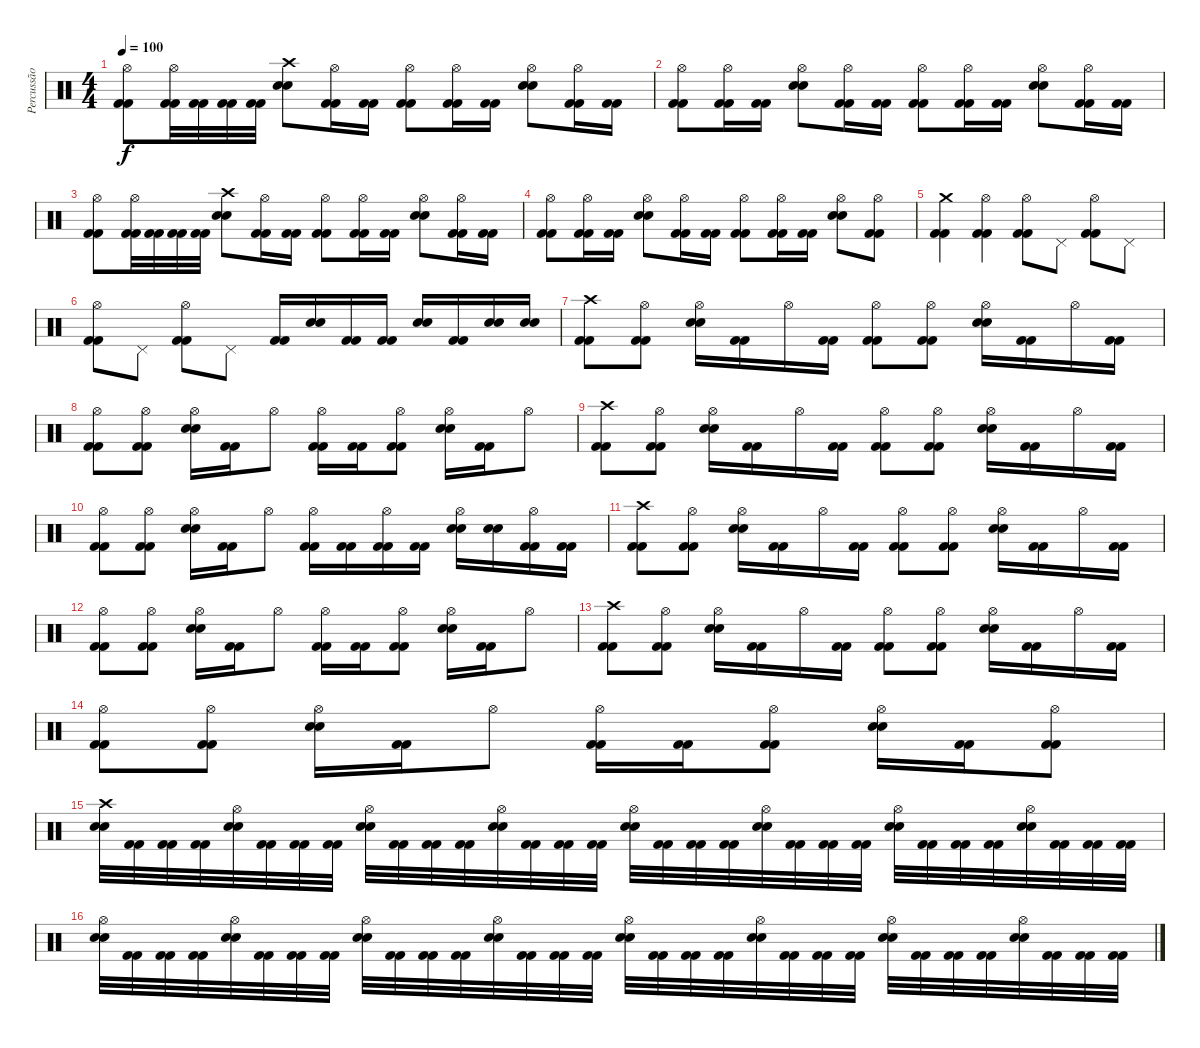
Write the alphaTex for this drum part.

\track ("Percussão" "Percussão") {instrument percussion}
\staff {score}
\articulation defaults
\ts (4 4)
\tempo 100
\clef neutral
\ks c
("Hi-Hat (open)" "Kick (hit) 2" "Kick (hit) 2").8{dy f} ("Hi-Hat (open)" "Kick (hit) 2" "Kick (hit) 2").32 ("Kick (hit) 2" "Kick (hit) 2").32 ("Kick (hit) 2" "Kick (hit) 2").32 ("Kick (hit) 2" "Kick (hit) 2").32 ("Crash high (hit)" "Electric Snare (hit)" "Electric Snare (hit)").8 ("Hi-Hat (open)" "Kick (hit) 2" "Kick (hit) 2").16 ("Kick (hit) 2" "Kick (hit) 2").16 ("Hi-Hat (open)" "Kick (hit) 2" "Kick (hit) 2").8 ("Hi-Hat (open)" "Kick (hit) 2" "Kick (hit) 2").16 ("Kick (hit) 2" "Kick (hit) 2").16 ("Hi-Hat (open)" "Electric Snare (hit)" "Electric Snare (hit)").8 ("Hi-Hat (open)" "Kick (hit) 2" "Kick (hit) 2").16 ("Kick (hit) 2" "Kick (hit) 2").16 |
("Hi-Hat (open)" "Kick (hit) 2" "Kick (hit) 2").8 ("Hi-Hat (open)" "Kick (hit) 2" "Kick (hit) 2").16 ("Kick (hit) 2" "Kick (hit) 2").16 ("Hi-Hat (open)" "Electric Snare (hit)" "Electric Snare (hit)").8 ("Hi-Hat (open)" "Kick (hit) 2" "Kick (hit) 2").16 ("Kick (hit) 2" "Kick (hit) 2").16 ("Hi-Hat (open)" "Kick (hit) 2" "Kick (hit) 2").8 ("Hi-Hat (open)" "Kick (hit) 2" "Kick (hit) 2").16 ("Kick (hit) 2" "Kick (hit) 2").16 ("Hi-Hat (open)" "Electric Snare (hit)" "Electric Snare (hit)").8 ("Hi-Hat (open)" "Kick (hit) 2" "Kick (hit) 2").16 ("Kick (hit) 2" "Kick (hit) 2").16 |
("Hi-Hat (open)" "Kick (hit) 2" "Kick (hit) 2").8 ("Hi-Hat (open)" "Kick (hit) 2" "Kick (hit) 2").32 ("Kick (hit) 2" "Kick (hit) 2").32 ("Kick (hit) 2" "Kick (hit) 2").32 ("Kick (hit) 2" "Kick (hit) 2").32 ("Crash high (hit)" "Electric Snare (hit)" "Electric Snare (hit)").8 ("Hi-Hat (open)" "Kick (hit) 2" "Kick (hit) 2").16 ("Kick (hit) 2" "Kick (hit) 2").16 ("Hi-Hat (open)" "Kick (hit) 2" "Kick (hit) 2").8 ("Hi-Hat (open)" "Kick (hit) 2" "Kick (hit) 2").16 ("Kick (hit) 2" "Kick (hit) 2").16 ("Hi-Hat (open)" "Electric Snare (hit)" "Electric Snare (hit)").8 ("Hi-Hat (open)" "Kick (hit) 2" "Kick (hit) 2").16 ("Kick (hit) 2" "Kick (hit) 2").16 |
("Hi-Hat (open)" "Kick (hit) 2" "Kick (hit) 2").8 ("Hi-Hat (open)" "Kick (hit) 2" "Kick (hit) 2").16 ("Kick (hit) 2" "Kick (hit) 2").16 ("Hi-Hat (open)" "Electric Snare (hit)" "Electric Snare (hit)").8 ("Hi-Hat (open)" "Kick (hit) 2" "Kick (hit) 2").16 ("Kick (hit) 2" "Kick (hit) 2").16 ("Hi-Hat (open)" "Kick (hit) 2" "Kick (hit) 2").8 ("Hi-Hat (open)" "Kick (hit) 2" "Kick (hit) 2").16 ("Kick (hit) 2" "Kick (hit) 2").16 ("Hi-Hat (open)" "Electric Snare (hit)" "Electric Snare (hit)").8 ("Hi-Hat (open)" "Kick (hit) 2" "Kick (hit) 2").8 |
("Crash medium (hit)" "Kick (hit) 2" "Kick (hit) 2").4 ("Hi-Hat (open)" "Kick (hit) 2" "Kick (hit) 2").4 ("Hi-Hat (open)" "Kick (hit) 2" "Kick (hit) 2").8 "Pedal Hi-Hat (hit)".8 ("Hi-Hat (open)" "Kick (hit) 2" "Kick (hit) 2").8 "Pedal Hi-Hat (hit)".8 |
("Hi-Hat (open)" "Kick (hit) 2" "Kick (hit) 2").8 "Pedal Hi-Hat (hit)".8 ("Hi-Hat (open)" "Kick (hit) 2" "Kick (hit) 2").8 "Pedal Hi-Hat (hit)".8 ("Kick (hit) 2" "Kick (hit) 2").16 ("Electric Snare (hit)" "Electric Snare (hit)").16 ("Kick (hit) 2" "Kick (hit) 2").16 ("Kick (hit) 2" "Kick (hit) 2").16 ("Electric Snare (hit)" "Electric Snare (hit)").16 ("Kick (hit) 2" "Kick (hit) 2").16 ("Electric Snare (hit)" "Electric Snare (hit)").16 ("Electric Snare (hit)" "Electric Snare (hit)").16 |
("Crash high (hit)" "Kick (hit) 2" "Kick (hit) 2").8 ("Hi-Hat (open)" "Kick (hit) 2" "Kick (hit) 2").8 ("Hi-Hat (open)" "Electric Snare (hit)" "Electric Snare (hit)").16 ("Kick (hit) 2" "Kick (hit) 2").16 "Hi-Hat (open)".16 ("Kick (hit) 2" "Kick (hit) 2").16 ("Hi-Hat (open)" "Kick (hit) 2" "Kick (hit) 2").8 ("Hi-Hat (open)" "Kick (hit) 2" "Kick (hit) 2").8 ("Hi-Hat (open)" "Electric Snare (hit)" "Electric Snare (hit)").16 ("Kick (hit) 2" "Kick (hit) 2").16 "Hi-Hat (open)".16 ("Kick (hit) 2" "Kick (hit) 2").16 |
("Hi-Hat (open)" "Kick (hit) 2" "Kick (hit) 2").8 ("Hi-Hat (open)" "Kick (hit) 2" "Kick (hit) 2").8 ("Hi-Hat (open)" "Electric Snare (hit)" "Electric Snare (hit)").16 ("Kick (hit) 2" "Kick (hit) 2").16 "Hi-Hat (open)".8 ("Hi-Hat (open)" "Kick (hit) 2" "Kick (hit) 2").16 ("Kick (hit) 2" "Kick (hit) 2").16 ("Hi-Hat (open)" "Kick (hit) 2" "Kick (hit) 2").8 ("Hi-Hat (open)" "Electric Snare (hit)" "Electric Snare (hit)").16 ("Kick (hit) 2" "Kick (hit) 2").16 "Hi-Hat (open)".8 |
("Crash high (hit)" "Kick (hit) 2" "Kick (hit) 2").8 ("Hi-Hat (open)" "Kick (hit) 2" "Kick (hit) 2").8 ("Hi-Hat (open)" "Electric Snare (hit)" "Electric Snare (hit)").16 ("Kick (hit) 2" "Kick (hit) 2").16 "Hi-Hat (open)".16 ("Kick (hit) 2" "Kick (hit) 2").16 ("Hi-Hat (open)" "Kick (hit) 2" "Kick (hit) 2").8 ("Hi-Hat (open)" "Kick (hit) 2" "Kick (hit) 2").8 ("Hi-Hat (open)" "Electric Snare (hit)" "Electric Snare (hit)").16 ("Kick (hit) 2" "Kick (hit) 2").16 "Hi-Hat (open)".16 ("Kick (hit) 2" "Kick (hit) 2").16 |
("Hi-Hat (open)" "Kick (hit) 2" "Kick (hit) 2").8 ("Hi-Hat (open)" "Kick (hit) 2" "Kick (hit) 2").8 ("Hi-Hat (open)" "Electric Snare (hit)" "Electric Snare (hit)").16 ("Kick (hit) 2" "Kick (hit) 2").16 "Hi-Hat (open)".8 ("Hi-Hat (open)" "Kick (hit) 2" "Kick (hit) 2").16 ("Kick (hit) 2" "Kick (hit) 2").16 ("Hi-Hat (open)" "Kick (hit) 2" "Kick (hit) 2").16 ("Kick (hit) 2" "Kick (hit) 2").16 ("Hi-Hat (open)" "Electric Snare (hit)" "Electric Snare (hit)").16 ("Electric Snare (hit)" "Electric Snare (hit)").16 ("Hi-Hat (open)" "Kick (hit) 2" "Kick (hit) 2").16 ("Kick (hit) 2" "Kick (hit) 2").16 |
("Crash high (hit)" "Kick (hit) 2" "Kick (hit) 2").8 ("Hi-Hat (open)" "Kick (hit) 2" "Kick (hit) 2").8 ("Hi-Hat (open)" "Electric Snare (hit)" "Electric Snare (hit)").16 ("Kick (hit) 2" "Kick (hit) 2").16 "Hi-Hat (open)".16 ("Kick (hit) 2" "Kick (hit) 2").16 ("Hi-Hat (open)" "Kick (hit) 2" "Kick (hit) 2").8 ("Hi-Hat (open)" "Kick (hit) 2" "Kick (hit) 2").8 ("Hi-Hat (open)" "Electric Snare (hit)" "Electric Snare (hit)").16 ("Kick (hit) 2" "Kick (hit) 2").16 "Hi-Hat (open)".16 ("Kick (hit) 2" "Kick (hit) 2").16 |
("Hi-Hat (open)" "Kick (hit) 2" "Kick (hit) 2").8 ("Hi-Hat (open)" "Kick (hit) 2" "Kick (hit) 2").8 ("Hi-Hat (open)" "Electric Snare (hit)" "Electric Snare (hit)").16 ("Kick (hit) 2" "Kick (hit) 2").16 "Hi-Hat (open)".8 ("Hi-Hat (open)" "Kick (hit) 2" "Kick (hit) 2").16 ("Kick (hit) 2" "Kick (hit) 2").16 ("Hi-Hat (open)" "Kick (hit) 2" "Kick (hit) 2").8 ("Hi-Hat (open)" "Electric Snare (hit)" "Electric Snare (hit)").16 ("Kick (hit) 2" "Kick (hit) 2").16 "Hi-Hat (open)".8 |
("Crash high (hit)" "Kick (hit) 2" "Kick (hit) 2").8 ("Hi-Hat (open)" "Kick (hit) 2" "Kick (hit) 2").8 ("Hi-Hat (open)" "Electric Snare (hit)" "Electric Snare (hit)").16 ("Kick (hit) 2" "Kick (hit) 2").16 "Hi-Hat (open)".16 ("Kick (hit) 2" "Kick (hit) 2").16 ("Hi-Hat (open)" "Kick (hit) 2" "Kick (hit) 2").8 ("Hi-Hat (open)" "Kick (hit) 2" "Kick (hit) 2").8 ("Hi-Hat (open)" "Electric Snare (hit)" "Electric Snare (hit)").16 ("Kick (hit) 2" "Kick (hit) 2").16 "Hi-Hat (open)".16 ("Kick (hit) 2" "Kick (hit) 2").16 |
("Hi-Hat (open)" "Kick (hit) 2" "Kick (hit) 2").8 ("Hi-Hat (open)" "Kick (hit) 2" "Kick (hit) 2").8 ("Hi-Hat (open)" "Electric Snare (hit)" "Electric Snare (hit)").16 ("Kick (hit) 2" "Kick (hit) 2").16 "Hi-Hat (open)".8 ("Hi-Hat (open)" "Kick (hit) 2" "Kick (hit) 2").16 ("Kick (hit) 2" "Kick (hit) 2").16 ("Hi-Hat (open)" "Kick (hit) 2" "Kick (hit) 2").8 ("Hi-Hat (open)" "Electric Snare (hit)" "Electric Snare (hit)").16 ("Kick (hit) 2" "Kick (hit) 2").16 ("Hi-Hat (open)" "Kick (hit) 2" "Kick (hit) 2").8 |
("Crash high (hit)" "Electric Snare (hit)" "Electric Snare (hit)").32 ("Kick (hit) 2" "Kick (hit) 2").32 ("Kick (hit) 2" "Kick (hit) 2").32 ("Kick (hit) 2" "Kick (hit) 2").32 ("Hi-Hat (open)" "Electric Snare (hit)" "Electric Snare (hit)").32 ("Kick (hit) 2" "Kick (hit) 2").32 ("Kick (hit) 2" "Kick (hit) 2").32 ("Kick (hit) 2" "Kick (hit) 2").32 ("Hi-Hat (open)" "Electric Snare (hit)" "Electric Snare (hit)").32 ("Kick (hit) 2" "Kick (hit) 2").32 ("Kick (hit) 2" "Kick (hit) 2").32 ("Kick (hit) 2" "Kick (hit) 2").32 ("Hi-Hat (open)" "Electric Snare (hit)" "Electric Snare (hit)").32 ("Kick (hit) 2" "Kick (hit) 2").32 ("Kick (hit) 2" "Kick (hit) 2").32 ("Kick (hit) 2" "Kick (hit) 2").32 ("Hi-Hat (open)" "Electric Snare (hit)" "Electric Snare (hit)").32 ("Kick (hit) 2" "Kick (hit) 2").32 ("Kick (hit) 2" "Kick (hit) 2").32 ("Kick (hit) 2" "Kick (hit) 2").32 ("Hi-Hat (open)" "Electric Snare (hit)" "Electric Snare (hit)").32 ("Kick (hit) 2" "Kick (hit) 2").32 ("Kick (hit) 2" "Kick (hit) 2").32 ("Kick (hit) 2" "Kick (hit) 2").32 ("Hi-Hat (open)" "Electric Snare (hit)" "Electric Snare (hit)").32 ("Kick (hit) 2" "Kick (hit) 2").32 ("Kick (hit) 2" "Kick (hit) 2").32 ("Kick (hit) 2" "Kick (hit) 2").32 ("Hi-Hat (open)" "Electric Snare (hit)" "Electric Snare (hit)").32 ("Kick (hit) 2" "Kick (hit) 2").32 ("Kick (hit) 2" "Kick (hit) 2").32 ("Kick (hit) 2" "Kick (hit) 2").32 |
("Hi-Hat (open)" "Electric Snare (hit)" "Electric Snare (hit)").32 ("Kick (hit) 2" "Kick (hit) 2").32 ("Kick (hit) 2" "Kick (hit) 2").32 ("Kick (hit) 2" "Kick (hit) 2").32 ("Hi-Hat (open)" "Electric Snare (hit)" "Electric Snare (hit)").32 ("Kick (hit) 2" "Kick (hit) 2").32 ("Kick (hit) 2" "Kick (hit) 2").32 ("Kick (hit) 2" "Kick (hit) 2").32 ("Hi-Hat (open)" "Electric Snare (hit)" "Electric Snare (hit)").32 ("Kick (hit) 2" "Kick (hit) 2").32 ("Kick (hit) 2" "Kick (hit) 2").32 ("Kick (hit) 2" "Kick (hit) 2").32 ("Hi-Hat (open)" "Electric Snare (hit)" "Electric Snare (hit)").32 ("Kick (hit) 2" "Kick (hit) 2").32 ("Kick (hit) 2" "Kick (hit) 2").32 ("Kick (hit) 2" "Kick (hit) 2").32 ("Hi-Hat (open)" "Electric Snare (hit)" "Electric Snare (hit)").32 ("Kick (hit) 2" "Kick (hit) 2").32 ("Kick (hit) 2" "Kick (hit) 2").32 ("Kick (hit) 2" "Kick (hit) 2").32 ("Hi-Hat (open)" "Electric Snare (hit)" "Electric Snare (hit)").32 ("Kick (hit) 2" "Kick (hit) 2").32 ("Kick (hit) 2" "Kick (hit) 2").32 ("Kick (hit) 2" "Kick (hit) 2").32 ("Hi-Hat (open)" "Electric Snare (hit)" "Electric Snare (hit)").32 ("Kick (hit) 2" "Kick (hit) 2").32 ("Kick (hit) 2" "Kick (hit) 2").32 ("Kick (hit) 2" "Kick (hit) 2").32 ("Hi-Hat (open)" "Electric Snare (hit)" "Electric Snare (hit)").32 ("Kick (hit) 2" "Kick (hit) 2").32 ("Kick (hit) 2" "Kick (hit) 2").32 ("Kick (hit) 2" "Kick (hit) 2").32
